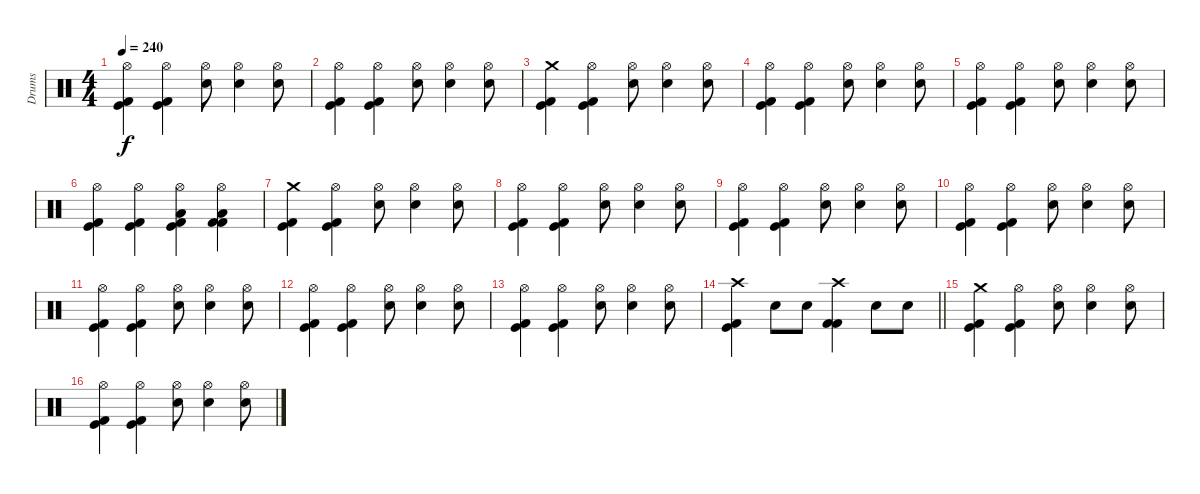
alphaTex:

\track ("Drums" "Drums") {instrument percussion}
\staff {score}
\articulation defaults
\ts (4 4)
\tempo 240
\clef neutral
\ks c
("Hi-Hat (open)" "Kick (hit)" "Kick (hit) 2").4{dy f} ("Hi-Hat (open)" "Kick (hit)" "Kick (hit) 2").4 ("Hi-Hat (open)" "Electric Snare (hit)").8 ("Hi-Hat (open)" "Electric Snare (hit)").4 ("Hi-Hat (open)" "Electric Snare (hit)").8 |
("Hi-Hat (open)" "Kick (hit)" "Kick (hit) 2").4 ("Hi-Hat (open)" "Kick (hit)" "Kick (hit) 2").4 ("Hi-Hat (open)" "Electric Snare (hit)").8 ("Hi-Hat (open)" "Electric Snare (hit)").4 ("Hi-Hat (open)" "Electric Snare (hit)").8 |
("Crash medium (hit)" "Kick (hit)" "Kick (hit) 2").4 ("Hi-Hat (open)" "Kick (hit)" "Kick (hit) 2").4 ("Hi-Hat (open)" "Electric Snare (hit)").8 ("Hi-Hat (open)" "Electric Snare (hit)").4 ("Hi-Hat (open)" "Electric Snare (hit)").8 |
("Hi-Hat (open)" "Kick (hit)" "Kick (hit) 2").4 ("Hi-Hat (open)" "Kick (hit)" "Kick (hit) 2").4 ("Hi-Hat (open)" "Electric Snare (hit)").8 ("Hi-Hat (open)" "Electric Snare (hit)").4 ("Hi-Hat (open)" "Electric Snare (hit)").8 |
("Hi-Hat (open)" "Kick (hit)" "Kick (hit) 2").4 ("Hi-Hat (open)" "Kick (hit)" "Kick (hit) 2").4 ("Hi-Hat (open)" "Electric Snare (hit)").8 ("Hi-Hat (open)" "Electric Snare (hit)").4 ("Hi-Hat (open)" "Electric Snare (hit)").8 |
("Hi-Hat (open)" "Kick (hit)" "Kick (hit) 2").4 ("Hi-Hat (open)" "Kick (hit)" "Kick (hit) 2").4 ("Hi-Hat (open)" "Low Tom (hit)" "Kick (hit)" "Kick (hit) 2").4 ("Hi-Hat (open)" "Low Tom (hit)" "Kick (hit) 2" "Kick (hit) 2").4 |
("Crash medium (hit)" "Kick (hit)" "Kick (hit) 2").4 ("Hi-Hat (open)" "Kick (hit)" "Kick (hit) 2").4 ("Hi-Hat (open)" "Electric Snare (hit)").8 ("Hi-Hat (open)" "Electric Snare (hit)").4 ("Hi-Hat (open)" "Electric Snare (hit)").8 |
("Hi-Hat (open)" "Kick (hit)" "Kick (hit) 2").4 ("Hi-Hat (open)" "Kick (hit)" "Kick (hit) 2").4 ("Hi-Hat (open)" "Electric Snare (hit)").8 ("Hi-Hat (open)" "Electric Snare (hit)").4 ("Hi-Hat (open)" "Electric Snare (hit)").8 |
("Hi-Hat (open)" "Kick (hit)" "Kick (hit) 2").4 ("Hi-Hat (open)" "Kick (hit)" "Kick (hit) 2").4 ("Hi-Hat (open)" "Electric Snare (hit)").8 ("Hi-Hat (open)" "Electric Snare (hit)").4 ("Hi-Hat (open)" "Electric Snare (hit)").8 |
("Hi-Hat (open)" "Kick (hit)" "Kick (hit) 2").4 ("Hi-Hat (open)" "Kick (hit)" "Kick (hit) 2").4 ("Hi-Hat (open)" "Electric Snare (hit)").8 ("Hi-Hat (open)" "Electric Snare (hit)").4 ("Hi-Hat (open)" "Electric Snare (hit)").8 |
("Hi-Hat (open)" "Kick (hit)" "Kick (hit) 2").4 ("Hi-Hat (open)" "Kick (hit)" "Kick (hit) 2").4 ("Hi-Hat (open)" "Electric Snare (hit)").8 ("Hi-Hat (open)" "Electric Snare (hit)").4 ("Hi-Hat (open)" "Electric Snare (hit)").8 |
("Hi-Hat (open)" "Kick (hit)" "Kick (hit) 2").4 ("Hi-Hat (open)" "Kick (hit)" "Kick (hit) 2").4 ("Hi-Hat (open)" "Electric Snare (hit)").8 ("Hi-Hat (open)" "Electric Snare (hit)").4 ("Hi-Hat (open)" "Electric Snare (hit)").8 |
("Hi-Hat (open)" "Kick (hit)" "Kick (hit) 2").4 ("Hi-Hat (open)" "Kick (hit)" "Kick (hit) 2").4 ("Hi-Hat (open)" "Electric Snare (hit)").8 ("Hi-Hat (open)" "Electric Snare (hit)").4 ("Hi-Hat (open)" "Electric Snare (hit)").8 |
\barLineRight lightlight
("Crash high (hit)" "Kick (hit)" "Kick (hit) 2").4 "Electric Snare (hit)".8 "Electric Snare (hit)".8 ("Crash high (hit)" "Kick (hit) 2" "Kick (hit) 2").4 "Electric Snare (hit)".8 "Electric Snare (hit)".8 |
\section ("" "")
("Crash medium (hit)" "Kick (hit)" "Kick (hit) 2").4 ("Hi-Hat (open)" "Kick (hit)" "Kick (hit) 2").4 ("Hi-Hat (open)" "Electric Snare (hit)").8 ("Hi-Hat (open)" "Electric Snare (hit)").4 ("Hi-Hat (open)" "Electric Snare (hit)").8 |
("Hi-Hat (open)" "Kick (hit)" "Kick (hit) 2").4 ("Hi-Hat (open)" "Kick (hit)" "Kick (hit) 2").4 ("Hi-Hat (open)" "Electric Snare (hit)").8 ("Hi-Hat (open)" "Electric Snare (hit)").4 ("Hi-Hat (open)" "Electric Snare (hit)").8
